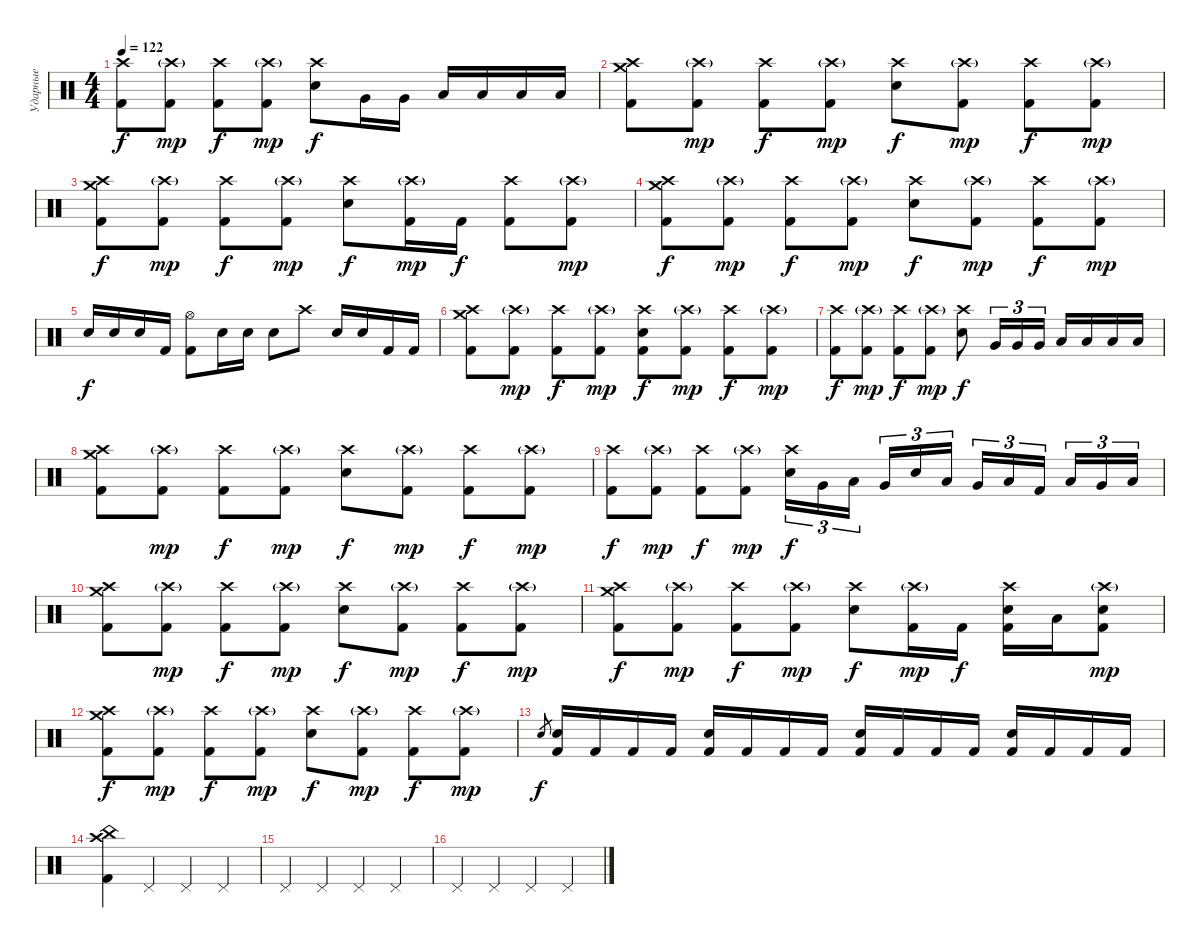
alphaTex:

\track ("Ударные" "Ударные") {instrument percussion}
\staff {score}
\articulation defaults
\ts (4 4)
\tempo 122
\clef neutral
\ks c
("Crash high (hit)" "Kick (hit) 2").8{dy f} ("Crash high (hit)"{g} "Kick (hit) 2").8{dy mp} ("Crash high (hit)" "Kick (hit) 2").8{dy f} ("Crash high (hit)"{g} "Kick (hit) 2").8{dy mp} ("Crash high (hit)" "Electric Snare (hit)").8{dy f} "Very Low Tom (hit)".16 "Very Low Tom (hit)".16 "Low Tom (hit)".16 "Low Tom (hit)".16 "Low Floor Tom (hit)".16 "Low Floor Tom (hit)".16 |
("Crash medium (hit)" "Crash high (hit)" "Kick (hit) 2").8 ("Crash high (hit)"{g} "Kick (hit) 2").8{dy mp} ("Crash high (hit)" "Kick (hit) 2").8{dy f} ("Crash high (hit)"{g} "Kick (hit) 2").8{dy mp} ("Crash high (hit)" "Electric Snare (hit)").8{dy f} ("Crash high (hit)"{g} "Kick (hit) 2").8{dy mp} ("Crash high (hit)" "Kick (hit) 2").8{dy f} ("Crash high (hit)"{g} "Kick (hit) 2").8{dy mp} |
("Crash medium (hit)" "Crash high (hit)" "Kick (hit) 2").8{dy f} ("Crash high (hit)"{g} "Kick (hit) 2").8{dy mp} ("Crash high (hit)" "Kick (hit) 2").8{dy f} ("Crash high (hit)"{g} "Kick (hit) 2").8{dy mp} ("Crash high (hit)" "Electric Snare (hit)").8{dy f} ("Crash high (hit)"{g} "Kick (hit) 2").16{dy mp} "Kick (hit) 2".16{dy f} ("Crash high (hit)" "Kick (hit) 2").8 ("Crash high (hit)"{g} "Kick (hit) 2").8{dy mp} |
("Crash medium (hit)" "Crash high (hit)" "Kick (hit) 2").8{dy f} ("Crash high (hit)"{g} "Kick (hit) 2").8{dy mp} ("Crash high (hit)" "Kick (hit) 2").8{dy f} ("Crash high (hit)"{g} "Kick (hit) 2").8{dy mp} ("Crash high (hit)" "Electric Snare (hit)").8{dy f} ("Crash high (hit)"{g} "Kick (hit) 2").8{dy mp} ("Crash high (hit)" "Kick (hit) 2").8{dy f} ("Crash high (hit)"{g} "Kick (hit) 2").8{dy mp} |
"Electric Snare (hit)".16{dy f} "Electric Snare (hit)".16 "Electric Snare (hit)".16 "Kick (hit) 2".16 ("Hi-Hat (open)" "Kick (hit) 2").8 "Electric Snare (hit)".16 "Electric Snare (hit)".16 "Electric Snare (hit)".8 "Crash high (hit)".8 "Electric Snare (hit)".16 "Electric Snare (hit)".16 "Kick (hit) 2".16 "Kick (hit) 2".16 |
("Crash medium (hit)" "Crash high (hit)" "Kick (hit) 2").8 ("Crash high (hit)"{g} "Kick (hit) 2").8{dy mp} ("Crash high (hit)" "Kick (hit) 2").8{dy f} ("Crash high (hit)"{g} "Kick (hit) 2").8{dy mp} ("Crash high (hit)" "Electric Snare (hit)" "Kick (hit) 2").8{dy f} ("Crash high (hit)"{g} "Kick (hit) 2").8{dy mp} ("Crash high (hit)" "Kick (hit) 2").8{dy f} ("Crash high (hit)"{g} "Kick (hit) 2").8{dy mp} |
("Crash high (hit)" "Kick (hit) 2").8{dy f} ("Crash high (hit)"{g} "Kick (hit) 2").8{dy mp} ("Crash high (hit)" "Kick (hit) 2").8{dy f} ("Crash high (hit)"{g} "Kick (hit) 2").8{dy mp} ("Crash high (hit)" "Electric Snare (hit)").8{dy f} "Very Low Tom (hit)".16{tu (3 2)} "Very Low Tom (hit)".16{tu (3 2)} "Very Low Tom (hit)".16{tu (3 2)} "Low Tom (hit)".16 "Low Tom (hit)".16 "Low Floor Tom (hit)".16 "Low Floor Tom (hit)".16 |
("Crash medium (hit)" "Crash high (hit)" "Kick (hit) 2").8 ("Crash high (hit)"{g} "Kick (hit) 2").8{dy mp} ("Crash high (hit)" "Kick (hit) 2").8{dy f} ("Crash high (hit)"{g} "Kick (hit) 2").8{dy mp} ("Crash high (hit)" "Electric Snare (hit)").8{dy f} ("Crash high (hit)"{g} "Kick (hit) 2").8{dy mp} ("Crash high (hit)" "Kick (hit) 2").8{dy f} ("Crash high (hit)"{g} "Kick (hit) 2").8{dy mp} |
("Crash high (hit)" "Kick (hit) 2").8{dy f} ("Crash high (hit)"{g} "Kick (hit) 2").8{dy mp} ("Crash high (hit)" "Kick (hit) 2").8{dy f} ("Crash high (hit)"{g} "Kick (hit) 2").8{dy mp} ("Crash high (hit)" "Electric Snare (hit)").16{tu (3 2) dy f} "Very Low Tom (hit)".16{tu (3 2)} "Low Tom (hit)".16{tu (3 2) beam splitsecondary} "Very Low Tom (hit)".16{tu (3 2)} "Electric Snare (hit)".16{tu (3 2)} "Low Tom (hit)".16{tu (3 2)} "Very Low Tom (hit)".16{tu (3 2)} "Low Tom (hit)".16{tu (3 2)} "Kick (hit) 2".16{tu (3 2) beam splitsecondary} "Low Floor Tom (hit)".16{tu (3 2)} "Very Low Tom (hit)".16{tu (3 2)} "Low Floor Tom (hit)".16{tu (3 2)} |
("Crash medium (hit)" "Crash high (hit)" "Kick (hit) 2").8 ("Crash high (hit)"{g} "Kick (hit) 2").8{dy mp} ("Crash high (hit)" "Kick (hit) 2").8{dy f} ("Crash high (hit)"{g} "Kick (hit) 2").8{dy mp} ("Crash high (hit)" "Electric Snare (hit)").8{dy f} ("Crash high (hit)"{g} "Kick (hit) 2").8{dy mp} ("Crash high (hit)" "Kick (hit) 2").8{dy f} ("Crash high (hit)"{g} "Kick (hit) 2").8{dy mp} |
("Crash medium (hit)" "Crash high (hit)" "Kick (hit) 2").8{dy f} ("Crash high (hit)"{g} "Kick (hit) 2").8{dy mp} ("Crash high (hit)" "Kick (hit) 2").8{dy f} ("Crash high (hit)"{g} "Kick (hit) 2").8{dy mp} ("Crash high (hit)" "Electric Snare (hit)").8{dy f} ("Crash high (hit)"{g} "Kick (hit) 2").16{dy mp} "Kick (hit) 2".16{dy f} ("Crash high (hit)" "Electric Snare (hit)" "Kick (hit) 2").16 "Low Tom (hit)".16 ("Crash high (hit)"{g} "Electric Snare (hit)" "Kick (hit) 2").8{dy mp} |
("Crash medium (hit)" "Crash high (hit)" "Kick (hit) 2").8{dy f} ("Crash high (hit)"{g} "Kick (hit) 2").8{dy mp} ("Crash high (hit)" "Kick (hit) 2").8{dy f} ("Crash high (hit)"{g} "Kick (hit) 2").8{dy mp} ("Crash high (hit)" "Electric Snare (hit)").8{dy f} ("Crash high (hit)"{g} "Kick (hit) 2").8{dy mp} ("Crash high (hit)" "Kick (hit) 2").8{dy f} ("Crash high (hit)"{g} "Kick (hit) 2").8{dy mp} |
"Electric Snare (hit)".8{gr dy f} ("Electric Snare (hit)" "Kick (hit) 2").16 "Kick (hit) 2".16 "Kick (hit) 2".16 "Kick (hit) 2".16 ("Electric Snare (hit)" "Kick (hit) 2").16 "Kick (hit) 2".16 "Kick (hit) 2".16 "Kick (hit) 2".16 ("Electric Snare (hit)" "Kick (hit) 2").16 "Kick (hit) 2".16 "Kick (hit) 2".16 "Kick (hit) 2".16 ("Electric Snare (hit)" "Kick (hit) 2").16 "Kick (hit) 2".16 "Kick (hit) 2".16 "Kick (hit) 2".16 |
("Crash high (hit)" "China (hit)" "Kick (hit) 2").4 "Pedal Hi-Hat (hit)".4 "Pedal Hi-Hat (hit)".4 "Pedal Hi-Hat (hit)".4 |
"Pedal Hi-Hat (hit)".4 "Pedal Hi-Hat (hit)".4 "Pedal Hi-Hat (hit)".4 "Pedal Hi-Hat (hit)".4 |
"Pedal Hi-Hat (hit)".4 "Pedal Hi-Hat (hit)".4 "Pedal Hi-Hat (hit)".4 "Pedal Hi-Hat (hit)".4
